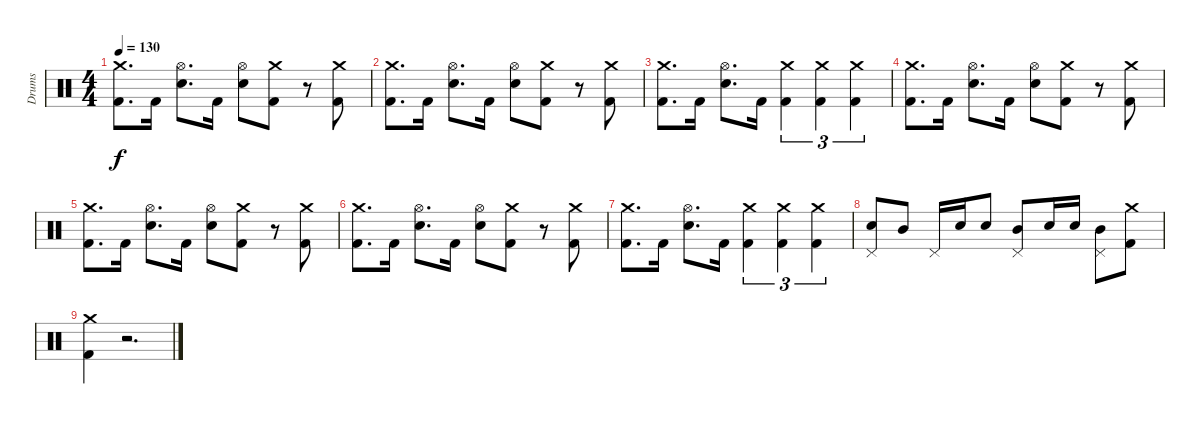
\track ("Drums" "Drums") {instrument percussion}
\staff {score}
\articulation defaults
\ts (4 4)
\tempo 130
\clef neutral
\ks c
("Crash medium (hit)" "Kick (hit) 2").8{d dy f} "Kick (hit) 2".16 ("Hi-Hat (open)" "Snare (hit) 2").8{d} "Kick (hit) 2".16 ("Hi-Hat (open)" "Snare (hit) 2").8 ("Crash medium (hit)" "Kick (hit) 2").8 r.8 ("Crash medium (hit)" "Kick (hit) 2").8 |
("Crash medium (hit)" "Kick (hit) 2").8{d} "Kick (hit) 2".16 ("Hi-Hat (open)" "Snare (hit) 2").8{d} "Kick (hit) 2".16 ("Hi-Hat (open)" "Snare (hit) 2").8 ("Crash medium (hit)" "Kick (hit) 2").8 r.8 ("Crash medium (hit)" "Kick (hit) 2").8 |
("Crash medium (hit)" "Kick (hit) 2").8{d} "Kick (hit) 2".16 ("Hi-Hat (open)" "Snare (hit) 2").8{d} "Kick (hit) 2".16 ("Crash medium (hit)" "Kick (hit) 2").4{tu (3 2)} ("Crash medium (hit)" "Kick (hit) 2").4{tu (3 2)} ("Crash medium (hit)" "Kick (hit) 2").4{tu (3 2)} |
("Crash medium (hit)" "Kick (hit) 2").8{d} "Kick (hit) 2".16 ("Hi-Hat (open)" "Snare (hit) 2").8{d} "Kick (hit) 2".16 ("Hi-Hat (open)" "Snare (hit) 2").8 ("Crash medium (hit)" "Kick (hit) 2").8 r.8 ("Crash medium (hit)" "Kick (hit) 2").8 |
("Crash medium (hit)" "Kick (hit) 2").8{d} "Kick (hit) 2".16 ("Hi-Hat (open)" "Snare (hit) 2").8{d} "Kick (hit) 2".16 ("Hi-Hat (open)" "Snare (hit) 2").8 ("Crash medium (hit)" "Kick (hit) 2").8 r.8 ("Crash medium (hit)" "Kick (hit) 2").8 |
("Crash medium (hit)" "Kick (hit) 2").8{d} "Kick (hit) 2".16 ("Hi-Hat (open)" "Snare (hit) 2").8{d} "Kick (hit) 2".16 ("Hi-Hat (open)" "Snare (hit) 2").8 ("Crash medium (hit)" "Kick (hit) 2").8 r.8 ("Crash medium (hit)" "Kick (hit) 2").8 |
("Crash medium (hit)" "Kick (hit) 2").8{d} "Kick (hit) 2".16 ("Hi-Hat (open)" "Snare (hit) 2").8{d} "Kick (hit) 2".16 ("Crash medium (hit)" "Kick (hit) 2").4{tu (3 2)} ("Crash medium (hit)" "Kick (hit) 2").4{tu (3 2)} ("Crash medium (hit)" "Kick (hit) 2").4{tu (3 2)} |
("Pedal Hi-Hat (hit)" "Snare (hit) 2").8 "Mid Tom (hit)".8 "Pedal Hi-Hat (hit)".16 "Snare (hit) 2".16 "Snare (hit) 2".8 ("Pedal Hi-Hat (hit)" "Mid Tom (hit)").8 "Snare (hit) 2".16 "Snare (hit) 2".16 ("Pedal Hi-Hat (hit)" "Mid Tom (hit)").8 ("Crash medium (hit)" "Kick (hit) 2").8 |
("Crash medium (hit)" "Kick (hit) 2").4 r.2{d}
